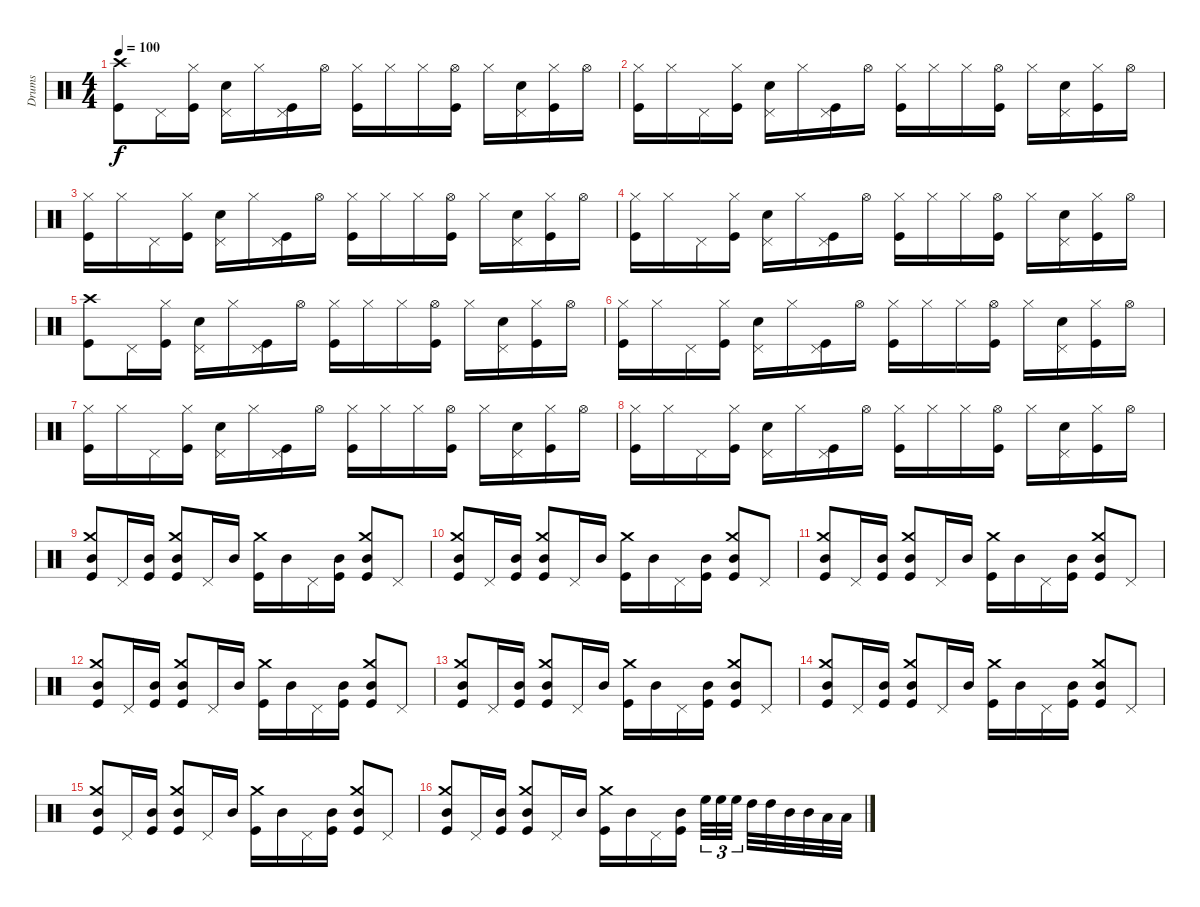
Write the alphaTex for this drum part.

\track ("Drums" "Drums") {instrument percussion}
\staff {score}
\articulation defaults
\ts (4 4)
\tempo 100
\clef neutral
\ks c
("Crash high (hit)" "Kick (hit)").8{dy f} "Pedal Hi-Hat (hit)".16 ("Hi-Hat (closed)" "Kick (hit)").16 ("Pedal Hi-Hat (hit)" "Electric Snare (hit)").16 "Hi-Hat (closed)".16 ("Pedal Hi-Hat (hit)" "Kick (hit)").16 "Hi-Hat (open)".16 ("Hi-Hat (closed)" "Kick (hit)").16 "Hi-Hat (closed)".16 "Hi-Hat (closed)".16 ("Hi-Hat (open)" "Kick (hit)").16 "Hi-Hat (closed)".16 ("Pedal Hi-Hat (hit)" "Electric Snare (hit)").16 ("Hi-Hat (closed)" "Kick (hit)").16 "Hi-Hat (open)".16 |
("Hi-Hat (closed)" "Kick (hit)").16 "Hi-Hat (closed)".16 "Pedal Hi-Hat (hit)".16 ("Hi-Hat (closed)" "Kick (hit)").16 ("Pedal Hi-Hat (hit)" "Electric Snare (hit)").16 "Hi-Hat (closed)".16 ("Pedal Hi-Hat (hit)" "Kick (hit)").16 "Hi-Hat (open)".16 ("Hi-Hat (closed)" "Kick (hit)").16 "Hi-Hat (closed)".16 "Hi-Hat (closed)".16 ("Hi-Hat (open)" "Kick (hit)").16 "Hi-Hat (closed)".16 ("Pedal Hi-Hat (hit)" "Electric Snare (hit)").16 ("Hi-Hat (closed)" "Kick (hit)").16 "Hi-Hat (open)".16 |
("Hi-Hat (closed)" "Kick (hit)").16 "Hi-Hat (closed)".16 "Pedal Hi-Hat (hit)".16 ("Hi-Hat (closed)" "Kick (hit)").16 ("Pedal Hi-Hat (hit)" "Electric Snare (hit)").16 "Hi-Hat (closed)".16 ("Pedal Hi-Hat (hit)" "Kick (hit)").16 "Hi-Hat (open)".16 ("Hi-Hat (closed)" "Kick (hit)").16 "Hi-Hat (closed)".16 "Hi-Hat (closed)".16 ("Hi-Hat (open)" "Kick (hit)").16 "Hi-Hat (closed)".16 ("Pedal Hi-Hat (hit)" "Electric Snare (hit)").16 ("Hi-Hat (closed)" "Kick (hit)").16 "Hi-Hat (open)".16 |
("Hi-Hat (closed)" "Kick (hit)").16 "Hi-Hat (closed)".16 "Pedal Hi-Hat (hit)".16 ("Hi-Hat (closed)" "Kick (hit)").16 ("Pedal Hi-Hat (hit)" "Electric Snare (hit)").16 "Hi-Hat (closed)".16 ("Pedal Hi-Hat (hit)" "Kick (hit)").16 "Hi-Hat (open)".16 ("Hi-Hat (closed)" "Kick (hit)").16 "Hi-Hat (closed)".16 "Hi-Hat (closed)".16 ("Hi-Hat (open)" "Kick (hit)").16 "Hi-Hat (closed)".16 ("Pedal Hi-Hat (hit)" "Electric Snare (hit)").16 ("Hi-Hat (closed)" "Kick (hit)").16 "Hi-Hat (open)".16 |
("Crash high (hit)" "Kick (hit)").8 "Pedal Hi-Hat (hit)".16 ("Hi-Hat (closed)" "Kick (hit)").16 ("Pedal Hi-Hat (hit)" "Electric Snare (hit)").16 "Hi-Hat (closed)".16 ("Pedal Hi-Hat (hit)" "Kick (hit)").16 "Hi-Hat (open)".16 ("Hi-Hat (closed)" "Kick (hit)").16 "Hi-Hat (closed)".16 "Hi-Hat (closed)".16 ("Hi-Hat (open)" "Kick (hit)").16 "Hi-Hat (closed)".16 ("Pedal Hi-Hat (hit)" "Electric Snare (hit)").16 ("Hi-Hat (closed)" "Kick (hit)").16 "Hi-Hat (open)".16 |
("Hi-Hat (closed)" "Kick (hit)").16 "Hi-Hat (closed)".16 "Pedal Hi-Hat (hit)".16 ("Hi-Hat (closed)" "Kick (hit)").16 ("Pedal Hi-Hat (hit)" "Electric Snare (hit)").16 "Hi-Hat (closed)".16 ("Pedal Hi-Hat (hit)" "Kick (hit)").16 "Hi-Hat (open)".16 ("Hi-Hat (closed)" "Kick (hit)").16 "Hi-Hat (closed)".16 "Hi-Hat (closed)".16 ("Hi-Hat (open)" "Kick (hit)").16 "Hi-Hat (closed)".16 ("Pedal Hi-Hat (hit)" "Electric Snare (hit)").16 ("Hi-Hat (closed)" "Kick (hit)").16 "Hi-Hat (open)".16 |
("Hi-Hat (closed)" "Kick (hit)").16 "Hi-Hat (closed)".16 "Pedal Hi-Hat (hit)".16 ("Hi-Hat (closed)" "Kick (hit)").16 ("Pedal Hi-Hat (hit)" "Electric Snare (hit)").16 "Hi-Hat (closed)".16 ("Pedal Hi-Hat (hit)" "Kick (hit)").16 "Hi-Hat (open)".16 ("Hi-Hat (closed)" "Kick (hit)").16 "Hi-Hat (closed)".16 "Hi-Hat (closed)".16 ("Hi-Hat (open)" "Kick (hit)").16 "Hi-Hat (closed)".16 ("Pedal Hi-Hat (hit)" "Electric Snare (hit)").16 ("Hi-Hat (closed)" "Kick (hit)").16 "Hi-Hat (open)".16 |
("Hi-Hat (closed)" "Kick (hit)").16 "Hi-Hat (closed)".16 "Pedal Hi-Hat (hit)".16 ("Hi-Hat (closed)" "Kick (hit)").16 ("Pedal Hi-Hat (hit)" "Electric Snare (hit)").16 "Hi-Hat (closed)".16 ("Pedal Hi-Hat (hit)" "Kick (hit)").16 "Hi-Hat (open)".16 ("Hi-Hat (closed)" "Kick (hit)").16 "Hi-Hat (closed)".16 "Hi-Hat (closed)".16 ("Hi-Hat (open)" "Kick (hit)").16 "Hi-Hat (closed)".16 ("Pedal Hi-Hat (hit)" "Electric Snare (hit)").16 ("Hi-Hat (closed)" "Kick (hit)").16 "Hi-Hat (open)".16 |
("Crash medium (hit)" "Mid Tom (hit)" "Kick (hit)").8 "Pedal Hi-Hat (hit)".16 ("Mid Tom (hit)" "Kick (hit)").16 ("Crash medium (hit)" "Mid Tom (hit)" "Kick (hit)").8 "Pedal Hi-Hat (hit)".16 "Mid Tom (hit)".16 ("Crash medium (hit)" "Kick (hit)").16 "Mid Tom (hit)".16 "Pedal Hi-Hat (hit)".16 ("Mid Tom (hit)" "Kick (hit)").16 ("Crash medium (hit)" "Mid Tom (hit)" "Kick (hit)").8 "Pedal Hi-Hat (hit)".8 |
("Crash medium (hit)" "Mid Tom (hit)" "Kick (hit)").8 "Pedal Hi-Hat (hit)".16 ("Mid Tom (hit)" "Kick (hit)").16 ("Crash medium (hit)" "Mid Tom (hit)" "Kick (hit)").8 "Pedal Hi-Hat (hit)".16 "Mid Tom (hit)".16 ("Crash medium (hit)" "Kick (hit)").16 "Mid Tom (hit)".16 "Pedal Hi-Hat (hit)".16 ("Mid Tom (hit)" "Kick (hit)").16 ("Crash medium (hit)" "Mid Tom (hit)" "Kick (hit)").8 "Pedal Hi-Hat (hit)".8 |
("Crash medium (hit)" "Mid Tom (hit)" "Kick (hit)").8 "Pedal Hi-Hat (hit)".16 ("Mid Tom (hit)" "Kick (hit)").16 ("Crash medium (hit)" "Mid Tom (hit)" "Kick (hit)").8 "Pedal Hi-Hat (hit)".16 "Mid Tom (hit)".16 ("Crash medium (hit)" "Kick (hit)").16 "Mid Tom (hit)".16 "Pedal Hi-Hat (hit)".16 ("Mid Tom (hit)" "Kick (hit)").16 ("Crash medium (hit)" "Mid Tom (hit)" "Kick (hit)").8 "Pedal Hi-Hat (hit)".8 |
("Crash medium (hit)" "Mid Tom (hit)" "Kick (hit)").8 "Pedal Hi-Hat (hit)".16 ("Mid Tom (hit)" "Kick (hit)").16 ("Crash medium (hit)" "Mid Tom (hit)" "Kick (hit)").8 "Pedal Hi-Hat (hit)".16 "Mid Tom (hit)".16 ("Crash medium (hit)" "Kick (hit)").16 "Mid Tom (hit)".16 "Pedal Hi-Hat (hit)".16 ("Mid Tom (hit)" "Kick (hit)").16 ("Crash medium (hit)" "Mid Tom (hit)" "Kick (hit)").8 "Pedal Hi-Hat (hit)".8 |
("Crash medium (hit)" "Mid Tom (hit)" "Kick (hit)").8 "Pedal Hi-Hat (hit)".16 ("Mid Tom (hit)" "Kick (hit)").16 ("Crash medium (hit)" "Mid Tom (hit)" "Kick (hit)").8 "Pedal Hi-Hat (hit)".16 "Mid Tom (hit)".16 ("Crash medium (hit)" "Kick (hit)").16 "Mid Tom (hit)".16 "Pedal Hi-Hat (hit)".16 ("Mid Tom (hit)" "Kick (hit)").16 ("Crash medium (hit)" "Mid Tom (hit)" "Kick (hit)").8 "Pedal Hi-Hat (hit)".8 |
("Crash medium (hit)" "Mid Tom (hit)" "Kick (hit)").8 "Pedal Hi-Hat (hit)".16 ("Mid Tom (hit)" "Kick (hit)").16 ("Crash medium (hit)" "Mid Tom (hit)" "Kick (hit)").8 "Pedal Hi-Hat (hit)".16 "Mid Tom (hit)".16 ("Crash medium (hit)" "Kick (hit)").16 "Mid Tom (hit)".16 "Pedal Hi-Hat (hit)".16 ("Mid Tom (hit)" "Kick (hit)").16 ("Crash medium (hit)" "Mid Tom (hit)" "Kick (hit)").8 "Pedal Hi-Hat (hit)".8 |
("Crash medium (hit)" "Mid Tom (hit)" "Kick (hit)").8 "Pedal Hi-Hat (hit)".16 ("Mid Tom (hit)" "Kick (hit)").16 ("Crash medium (hit)" "Mid Tom (hit)" "Kick (hit)").8 "Pedal Hi-Hat (hit)".16 "Mid Tom (hit)".16 ("Crash medium (hit)" "Kick (hit)").16 "Mid Tom (hit)".16 "Pedal Hi-Hat (hit)".16 ("Mid Tom (hit)" "Kick (hit)").16 ("Crash medium (hit)" "Mid Tom (hit)" "Kick (hit)").8 "Pedal Hi-Hat (hit)".8 |
("Crash medium (hit)" "Mid Tom (hit)" "Kick (hit)").8 "Pedal Hi-Hat (hit)".16 ("Mid Tom (hit)" "Kick (hit)").16 ("Crash medium (hit)" "Mid Tom (hit)" "Kick (hit)").8 "Pedal Hi-Hat (hit)".16 "Mid Tom (hit)".16 ("Crash medium (hit)" "Kick (hit)").16 "Mid Tom (hit)".16 "Pedal Hi-Hat (hit)".16 ("Mid Tom (hit)" "Kick (hit)").16 "High Floor Tom (hit)".32{tu (3 2)} "High Floor Tom (hit)".32{tu (3 2)} "High Floor Tom (hit)".32{tu (3 2)} "High Tom (hit)".32 "High Tom (hit)".32 "Mid Tom (hit)".32 "Mid Tom (hit)".32 "Low Tom (hit)".32 "Low Tom (hit)".32
